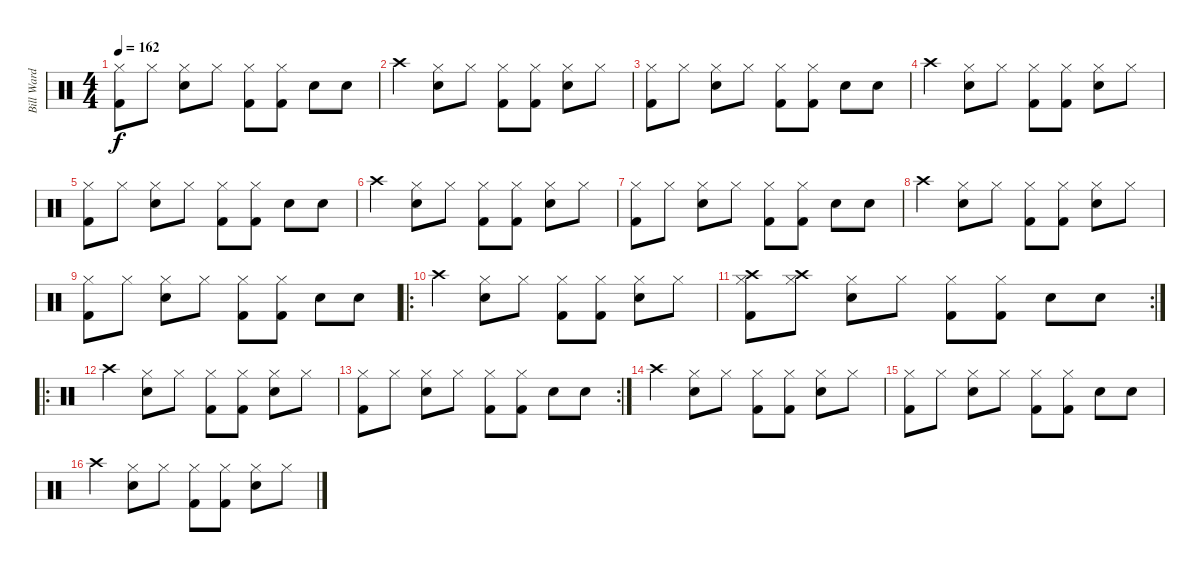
\track ("Bill Ward" "Bill Ward") {instrument percussion}
\staff {score}
\articulation defaults
\ts (4 4)
\tempo 162
\clef neutral
\ks c
("Kick (hit) 2" "Hi-Hat (closed)").8{dy f} "Hi-Hat (closed)".8 ("Snare (hit) 2" "Hi-Hat (closed)").8 "Hi-Hat (closed)".8 ("Kick (hit) 2" "Hi-Hat (closed)").8 ("Kick (hit) 2" "Hi-Hat (closed)").8 "Snare (hit) 2".8 "Snare (hit) 2".8 |
"Crash high (hit)".4 ("Snare (hit) 2" "Hi-Hat (closed)").8 "Hi-Hat (closed)".8 ("Kick (hit) 2" "Hi-Hat (closed)").8 ("Kick (hit) 2" "Hi-Hat (closed)").8 ("Snare (hit) 2" "Hi-Hat (closed)").8 "Hi-Hat (closed)".8 |
("Kick (hit) 2" "Hi-Hat (closed)").8 "Hi-Hat (closed)".8 ("Snare (hit) 2" "Hi-Hat (closed)").8 "Hi-Hat (closed)".8 ("Kick (hit) 2" "Hi-Hat (closed)").8 ("Kick (hit) 2" "Hi-Hat (closed)").8 "Snare (hit) 2".8 "Snare (hit) 2".8 |
"Crash high (hit)".4 ("Snare (hit) 2" "Hi-Hat (closed)").8 "Hi-Hat (closed)".8 ("Kick (hit) 2" "Hi-Hat (closed)").8 ("Kick (hit) 2" "Hi-Hat (closed)").8 ("Snare (hit) 2" "Hi-Hat (closed)").8 "Hi-Hat (closed)".8 |
("Kick (hit) 2" "Hi-Hat (closed)").8 "Hi-Hat (closed)".8 ("Snare (hit) 2" "Hi-Hat (closed)").8 "Hi-Hat (closed)".8 ("Kick (hit) 2" "Hi-Hat (closed)").8 ("Kick (hit) 2" "Hi-Hat (closed)").8 "Snare (hit) 2".8 "Snare (hit) 2".8 |
"Crash high (hit)".4 ("Snare (hit) 2" "Hi-Hat (closed)").8 "Hi-Hat (closed)".8 ("Kick (hit) 2" "Hi-Hat (closed)").8 ("Kick (hit) 2" "Hi-Hat (closed)").8 ("Snare (hit) 2" "Hi-Hat (closed)").8 "Hi-Hat (closed)".8 |
("Kick (hit) 2" "Hi-Hat (closed)").8 "Hi-Hat (closed)".8 ("Snare (hit) 2" "Hi-Hat (closed)").8 "Hi-Hat (closed)".8 ("Kick (hit) 2" "Hi-Hat (closed)").8 ("Kick (hit) 2" "Hi-Hat (closed)").8 "Snare (hit) 2".8 "Snare (hit) 2".8 |
"Crash high (hit)".4 ("Snare (hit) 2" "Hi-Hat (closed)").8 "Hi-Hat (closed)".8 ("Kick (hit) 2" "Hi-Hat (closed)").8 ("Kick (hit) 2" "Hi-Hat (closed)").8 ("Snare (hit) 2" "Hi-Hat (closed)").8 "Hi-Hat (closed)".8 |
("Kick (hit) 2" "Hi-Hat (closed)").8 "Hi-Hat (closed)".8 ("Snare (hit) 2" "Hi-Hat (closed)").8 "Hi-Hat (closed)".8 ("Kick (hit) 2" "Hi-Hat (closed)").8 ("Kick (hit) 2" "Hi-Hat (closed)").8 "Snare (hit) 2".8 "Snare (hit) 2".8 |
\ro "Crash high (hit)".4
("Snare (hit) 2" "Hi-Hat (closed)").8 "Hi-Hat (closed)".8 ("Kick (hit) 2" "Hi-Hat (closed)").8 ("Kick (hit) 2" "Hi-Hat (closed)").8 ("Snare (hit) 2" "Hi-Hat (closed)").8 "Hi-Hat (closed)".8 |
\rc 2
("Crash high (hit)" "Kick (hit) 2" "Hi-Hat (closed)").8 ("Crash high (hit)" "Hi-Hat (closed)").8 ("Snare (hit) 2" "Hi-Hat (closed)").8 "Hi-Hat (closed)".8 ("Kick (hit) 2" "Hi-Hat (closed)").8 ("Kick (hit) 2" "Hi-Hat (closed)").8 "Snare (hit) 2".8 "Snare (hit) 2".8 |
\ro "Crash high (hit)".4
("Snare (hit) 2" "Hi-Hat (closed)").8 "Hi-Hat (closed)".8 ("Kick (hit) 2" "Hi-Hat (closed)").8 ("Kick (hit) 2" "Hi-Hat (closed)").8 ("Snare (hit) 2" "Hi-Hat (closed)").8 "Hi-Hat (closed)".8 |
\rc 2
("Kick (hit) 2" "Hi-Hat (closed)").8 "Hi-Hat (closed)".8 ("Snare (hit) 2" "Hi-Hat (closed)").8 "Hi-Hat (closed)".8 ("Kick (hit) 2" "Hi-Hat (closed)").8 ("Kick (hit) 2" "Hi-Hat (closed)").8 "Snare (hit) 2".8 "Snare (hit) 2".8 |
"Crash high (hit)".4 ("Snare (hit) 2" "Hi-Hat (closed)").8 "Hi-Hat (closed)".8 ("Kick (hit) 2" "Hi-Hat (closed)").8 ("Kick (hit) 2" "Hi-Hat (closed)").8 ("Snare (hit) 2" "Hi-Hat (closed)").8 "Hi-Hat (closed)".8 |
("Kick (hit) 2" "Hi-Hat (closed)").8 "Hi-Hat (closed)".8 ("Snare (hit) 2" "Hi-Hat (closed)").8 "Hi-Hat (closed)".8 ("Kick (hit) 2" "Hi-Hat (closed)").8 ("Kick (hit) 2" "Hi-Hat (closed)").8 "Snare (hit) 2".8 "Snare (hit) 2".8 |
"Crash high (hit)".4 ("Snare (hit) 2" "Hi-Hat (closed)").8 "Hi-Hat (closed)".8 ("Kick (hit) 2" "Hi-Hat (closed)").8 ("Kick (hit) 2" "Hi-Hat (closed)").8 ("Snare (hit) 2" "Hi-Hat (closed)").8 "Hi-Hat (closed)".8
